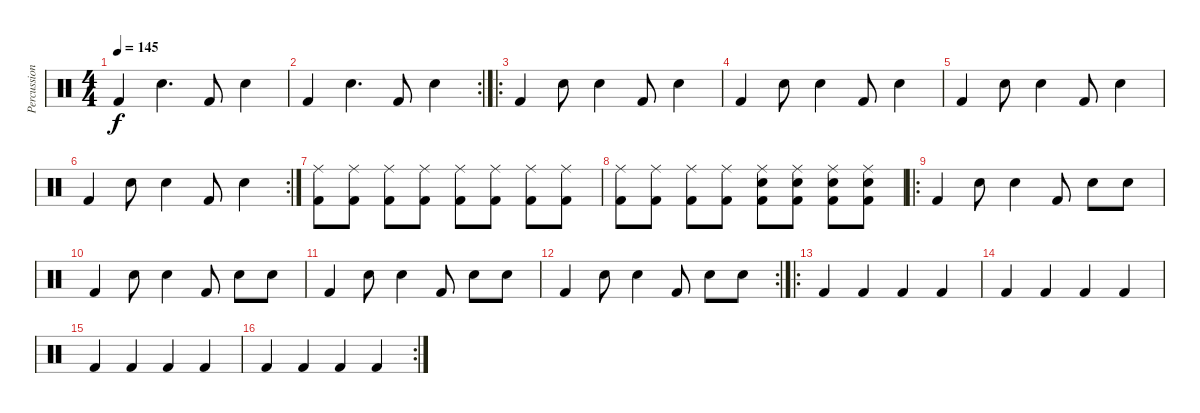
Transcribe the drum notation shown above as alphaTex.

\track ("Percussions" "Percussion") {instrument percussion}
\staff {score}
\articulation defaults
\ts (4 4)
\tempo 145
\clef neutral
\ks c "Kick (hit) 2".4{dy f} "Snare (hit) 2".4{d} "Kick (hit) 2".8 "Snare (hit) 2".4
|
\rc 2 "Kick (hit) 2".4 "Snare (hit) 2".4{d} "Kick (hit) 2".8 "Snare (hit) 2".4
|
\ro "Kick (hit) 2".4 "Snare (hit) 2".8 "Snare (hit) 2".4 "Kick (hit) 2".8 "Snare (hit) 2".4
|
"Kick (hit) 2".4 "Snare (hit) 2".8 "Snare (hit) 2".4 "Kick (hit) 2".8 "Snare (hit) 2".4 |
"Kick (hit) 2".4 "Snare (hit) 2".8 "Snare (hit) 2".4 "Kick (hit) 2".8 "Snare (hit) 2".4 |
\rc 2 "Kick (hit) 2".4 "Snare (hit) 2".8 "Snare (hit) 2".4 "Kick (hit) 2".8 "Snare (hit) 2".4
|
("Ride (middle)" "Kick (hit) 2").8 ("Ride (middle)" "Kick (hit) 2").8 ("Ride (middle)" "Kick (hit) 2").8 ("Ride (middle)" "Kick (hit) 2").8 ("Ride (middle)" "Kick (hit) 2").8 ("Ride (middle)" "Kick (hit) 2").8 ("Ride (middle)" "Kick (hit) 2").8 ("Ride (middle)" "Kick (hit) 2").8 |
("Ride (middle)" "Kick (hit) 2").8 ("Ride (middle)" "Kick (hit) 2").8 ("Ride (middle)" "Kick (hit) 2").8 ("Ride (middle)" "Kick (hit) 2").8 ("Ride (middle)" "Snare (hit) 2" "Kick (hit) 2").8 ("Ride (middle)" "Snare (hit) 2" "Kick (hit) 2").8 ("Ride (middle)" "Snare (hit) 2" "Kick (hit) 2").8 ("Ride (middle)" "Snare (hit) 2" "Kick (hit) 2").8 |
\ro "Kick (hit) 2".4 "Snare (hit) 2".8 "Snare (hit) 2".4 "Kick (hit) 2".8 "Snare (hit) 2".8 "Snare (hit) 2".8
|
"Kick (hit) 2".4 "Snare (hit) 2".8 "Snare (hit) 2".4 "Kick (hit) 2".8 "Snare (hit) 2".8 "Snare (hit) 2".8 |
"Kick (hit) 2".4 "Snare (hit) 2".8 "Snare (hit) 2".4 "Kick (hit) 2".8 "Snare (hit) 2".8 "Snare (hit) 2".8 |
\rc 2 "Kick (hit) 2".4 "Snare (hit) 2".8 "Snare (hit) 2".4 "Kick (hit) 2".8 "Snare (hit) 2".8 "Snare (hit) 2".8
|
\ro "Kick (hit) 2".4 "Kick (hit) 2".4 "Kick (hit) 2".4 "Kick (hit) 2".4
|
"Kick (hit) 2".4 "Kick (hit) 2".4 "Kick (hit) 2".4 "Kick (hit) 2".4 |
"Kick (hit) 2".4 "Kick (hit) 2".4 "Kick (hit) 2".4 "Kick (hit) 2".4 |
\rc 2 "Kick (hit) 2".4 "Kick (hit) 2".4 "Kick (hit) 2".4 "Kick (hit) 2".4
